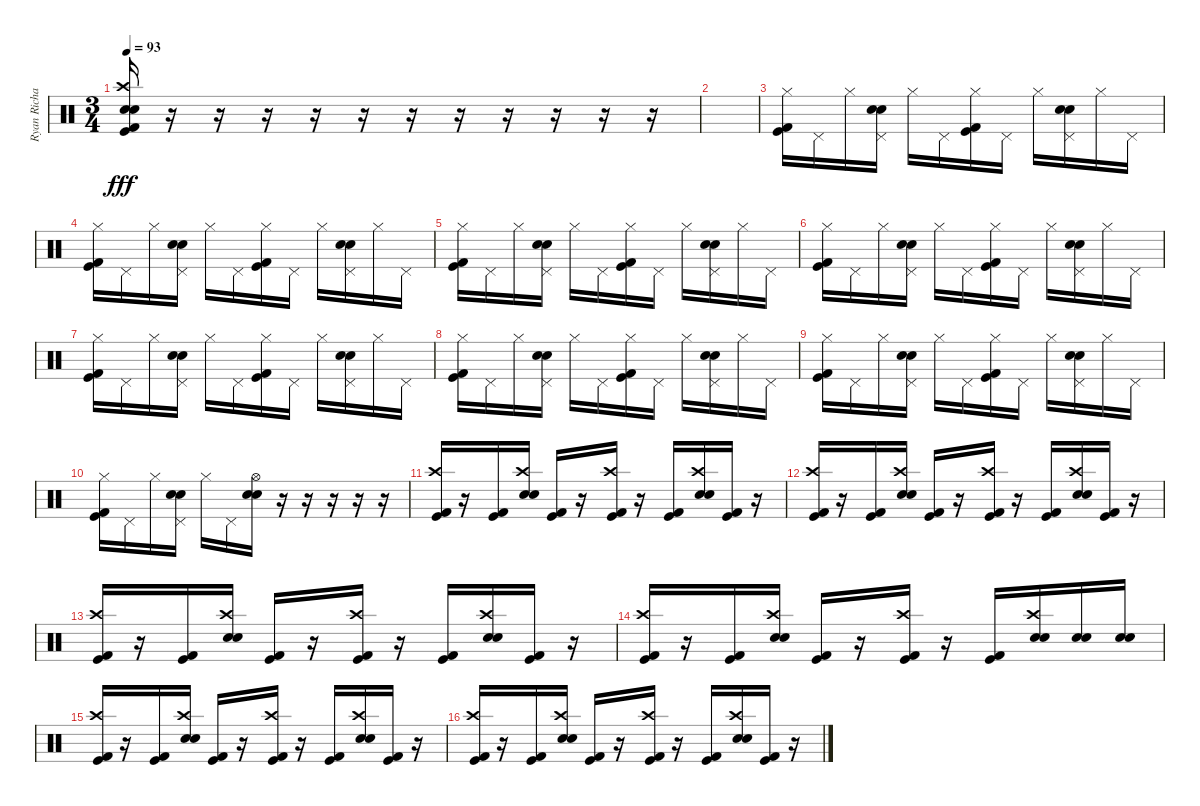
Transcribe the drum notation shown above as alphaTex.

\track ("Ryan Richards" "Ryan Richa") {instrument percussion}
\staff {score}
\articulation defaults
\ts (3 4)
\tempo 93
\clef neutral
\ks c
("Kick (hit)" "Snare (hit) 2" "Crash high (hit)" "Electric Snare (hit)" "Kick (hit) 2").16{dy fff volume 16} r.16 r.16 r.16 r.16 r.16 r.16 r.16 r.16 r.16 r.16 r.16 |
|
("Kick (hit)" "Hi-Hat (closed)" "Kick (hit) 2").16 "Pedal Hi-Hat (hit)".16 "Hi-Hat (closed)".16 ("Snare (hit) 2" "Pedal Hi-Hat (hit)" "Electric Snare (hit)").16 "Hi-Hat (closed)".16 "Pedal Hi-Hat (hit)".16 ("Kick (hit)" "Hi-Hat (closed)" "Kick (hit) 2").16 "Pedal Hi-Hat (hit)".16 "Hi-Hat (closed)".16 ("Snare (hit) 2" "Pedal Hi-Hat (hit)" "Electric Snare (hit)").16 "Hi-Hat (closed)".16 "Pedal Hi-Hat (hit)".16 |
("Kick (hit)" "Hi-Hat (closed)" "Kick (hit) 2").16 "Pedal Hi-Hat (hit)".16 "Hi-Hat (closed)".16 ("Snare (hit) 2" "Pedal Hi-Hat (hit)" "Electric Snare (hit)").16 "Hi-Hat (closed)".16 "Pedal Hi-Hat (hit)".16 ("Kick (hit)" "Hi-Hat (closed)" "Kick (hit) 2").16 "Pedal Hi-Hat (hit)".16 "Hi-Hat (closed)".16 ("Snare (hit) 2" "Pedal Hi-Hat (hit)" "Electric Snare (hit)").16 "Hi-Hat (closed)".16 "Pedal Hi-Hat (hit)".16 |
("Kick (hit)" "Hi-Hat (closed)" "Kick (hit) 2").16 "Pedal Hi-Hat (hit)".16 "Hi-Hat (closed)".16 ("Snare (hit) 2" "Pedal Hi-Hat (hit)" "Electric Snare (hit)").16 "Hi-Hat (closed)".16 "Pedal Hi-Hat (hit)".16 ("Kick (hit)" "Hi-Hat (closed)" "Kick (hit) 2").16 "Pedal Hi-Hat (hit)".16 "Hi-Hat (closed)".16 ("Snare (hit) 2" "Pedal Hi-Hat (hit)" "Electric Snare (hit)").16 "Hi-Hat (closed)".16 "Pedal Hi-Hat (hit)".16 |
("Kick (hit)" "Hi-Hat (closed)" "Kick (hit) 2").16 "Pedal Hi-Hat (hit)".16 "Hi-Hat (closed)".16 ("Snare (hit) 2" "Pedal Hi-Hat (hit)" "Electric Snare (hit)").16 "Hi-Hat (closed)".16 "Pedal Hi-Hat (hit)".16 ("Kick (hit)" "Hi-Hat (closed)" "Kick (hit) 2").16 "Pedal Hi-Hat (hit)".16 "Hi-Hat (closed)".16 ("Snare (hit) 2" "Pedal Hi-Hat (hit)" "Electric Snare (hit)").16 "Hi-Hat (closed)".16 "Pedal Hi-Hat (hit)".16 |
("Kick (hit)" "Hi-Hat (closed)" "Kick (hit) 2").16 "Pedal Hi-Hat (hit)".16 "Hi-Hat (closed)".16 ("Snare (hit) 2" "Pedal Hi-Hat (hit)" "Electric Snare (hit)").16 "Hi-Hat (closed)".16 "Pedal Hi-Hat (hit)".16 ("Kick (hit)" "Hi-Hat (closed)" "Kick (hit) 2").16 "Pedal Hi-Hat (hit)".16 "Hi-Hat (closed)".16 ("Snare (hit) 2" "Pedal Hi-Hat (hit)" "Electric Snare (hit)").16 "Hi-Hat (closed)".16 "Pedal Hi-Hat (hit)".16 |
("Kick (hit)" "Hi-Hat (closed)" "Kick (hit) 2").16 "Pedal Hi-Hat (hit)".16 "Hi-Hat (closed)".16 ("Snare (hit) 2" "Pedal Hi-Hat (hit)" "Electric Snare (hit)").16 "Hi-Hat (closed)".16 "Pedal Hi-Hat (hit)".16 ("Kick (hit)" "Hi-Hat (closed)" "Kick (hit) 2").16 "Pedal Hi-Hat (hit)".16 "Hi-Hat (closed)".16 ("Snare (hit) 2" "Pedal Hi-Hat (hit)" "Electric Snare (hit)").16 "Hi-Hat (closed)".16 "Pedal Hi-Hat (hit)".16 |
("Kick (hit)" "Hi-Hat (closed)" "Kick (hit) 2").16 "Pedal Hi-Hat (hit)".16 "Hi-Hat (closed)".16 ("Snare (hit) 2" "Pedal Hi-Hat (hit)" "Electric Snare (hit)").16 "Hi-Hat (closed)".16 "Pedal Hi-Hat (hit)".16 ("Kick (hit)" "Hi-Hat (closed)" "Kick (hit) 2").16 "Pedal Hi-Hat (hit)".16 "Hi-Hat (closed)".16 ("Snare (hit) 2" "Pedal Hi-Hat (hit)" "Electric Snare (hit)").16 "Hi-Hat (closed)".16 "Pedal Hi-Hat (hit)".16 |
("Kick (hit)" "Hi-Hat (closed)" "Kick (hit) 2").16 "Pedal Hi-Hat (hit)".16 "Hi-Hat (closed)".16 ("Snare (hit) 2" "Pedal Hi-Hat (hit)" "Electric Snare (hit)").16 "Hi-Hat (closed)".16 "Pedal Hi-Hat (hit)".16 ("Snare (hit) 2" "Hi-Hat (open)" "Electric Snare (hit)").16 r.16 r.16 r.16 r.16 r.16 |
("Kick (hit)" "Crash high (hit)" "Kick (hit) 2").16{volume 16} r.16 ("Kick (hit)" "Kick (hit) 2").16 ("Snare (hit) 2" "Crash high (hit)" "Electric Snare (hit)").16 ("Kick (hit)" "Kick (hit) 2").16 r.16 ("Kick (hit)" "Crash high (hit)" "Kick (hit) 2").16 r.16 ("Kick (hit)" "Kick (hit) 2").16 ("Snare (hit) 2" "Crash high (hit)" "Electric Snare (hit)").16 ("Kick (hit)" "Kick (hit) 2").16 r.16 |
("Kick (hit)" "Crash high (hit)" "Kick (hit) 2").16{volume 16} r.16 ("Kick (hit)" "Kick (hit) 2").16 ("Snare (hit) 2" "Crash high (hit)" "Electric Snare (hit)").16 ("Kick (hit)" "Kick (hit) 2").16 r.16 ("Kick (hit)" "Crash high (hit)" "Kick (hit) 2").16 r.16 ("Kick (hit)" "Kick (hit) 2").16 ("Snare (hit) 2" "Crash high (hit)" "Electric Snare (hit)").16 ("Kick (hit)" "Kick (hit) 2").16 r.16 |
("Kick (hit)" "Crash high (hit)" "Kick (hit) 2").16{volume 16} r.16 ("Kick (hit)" "Kick (hit) 2").16 ("Snare (hit) 2" "Crash high (hit)" "Electric Snare (hit)").16 ("Kick (hit)" "Kick (hit) 2").16 r.16 ("Kick (hit)" "Crash high (hit)" "Kick (hit) 2").16 r.16 ("Kick (hit)" "Kick (hit) 2").16 ("Snare (hit) 2" "Crash high (hit)" "Electric Snare (hit)").16 ("Kick (hit)" "Kick (hit) 2").16 r.16 |
("Kick (hit)" "Crash high (hit)" "Kick (hit) 2").16{volume 16} r.16 ("Kick (hit)" "Kick (hit) 2").16 ("Snare (hit) 2" "Crash high (hit)" "Electric Snare (hit)").16 ("Kick (hit)" "Kick (hit) 2").16 r.16 ("Kick (hit)" "Crash high (hit)" "Kick (hit) 2").16 r.16 ("Kick (hit)" "Kick (hit) 2").16 ("Snare (hit) 2" "Crash high (hit)" "Electric Snare (hit)").16 ("Snare (hit) 2" "Electric Snare (hit)").16 ("Snare (hit) 2" "Electric Snare (hit)").16 |
("Kick (hit)" "Crash high (hit)" "Kick (hit) 2").16{volume 16} r.16 ("Kick (hit)" "Kick (hit) 2").16 ("Snare (hit) 2" "Crash high (hit)" "Electric Snare (hit)").16 ("Kick (hit)" "Kick (hit) 2").16 r.16 ("Kick (hit)" "Crash high (hit)" "Kick (hit) 2").16 r.16 ("Kick (hit)" "Kick (hit) 2").16 ("Snare (hit) 2" "Crash high (hit)" "Electric Snare (hit)").16 ("Kick (hit)" "Kick (hit) 2").16 r.16 |
("Kick (hit)" "Crash high (hit)" "Kick (hit) 2").16{volume 16} r.16 ("Kick (hit)" "Kick (hit) 2").16 ("Snare (hit) 2" "Crash high (hit)" "Electric Snare (hit)").16 ("Kick (hit)" "Kick (hit) 2").16 r.16 ("Kick (hit)" "Crash high (hit)" "Kick (hit) 2").16 r.16 ("Kick (hit)" "Kick (hit) 2").16 ("Snare (hit) 2" "Crash high (hit)" "Electric Snare (hit)").16 ("Kick (hit)" "Kick (hit) 2").16 r.16
